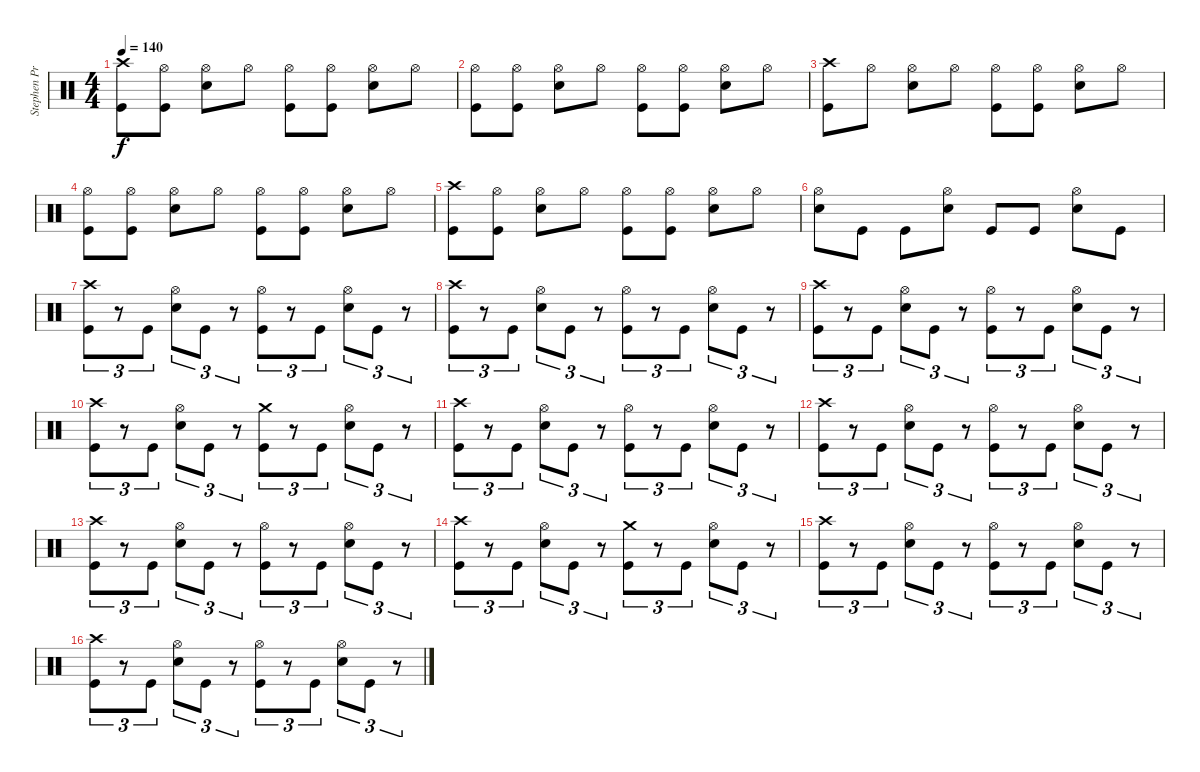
\track ("Stephen Priestly-Drums" "Stephen Pr") {instrument percussion}
\staff {score}
\articulation defaults
\ts (4 4)
\tempo 140
\clef neutral
\ks c
("Crash high (hit)" "Kick (hit)").8{dy f} ("Hi-Hat (open)" "Kick (hit)").8 ("Hi-Hat (open)" "Snare (hit) 2").8 "Hi-Hat (open)".8 ("Hi-Hat (open)" "Kick (hit)").8 ("Hi-Hat (open)" "Kick (hit)").8 ("Hi-Hat (open)" "Snare (hit) 2").8 "Hi-Hat (open)".8 |
("Hi-Hat (open)" "Kick (hit)").8 ("Hi-Hat (open)" "Kick (hit)").8 ("Hi-Hat (open)" "Snare (hit) 2").8 "Hi-Hat (open)".8 ("Hi-Hat (open)" "Kick (hit)").8 ("Hi-Hat (open)" "Kick (hit)").8 ("Hi-Hat (open)" "Snare (hit) 2").8 "Hi-Hat (open)".8 |
("Crash high (hit)" "Kick (hit)").8 "Hi-Hat (open)".8 ("Hi-Hat (open)" "Snare (hit) 2").8 "Hi-Hat (open)".8 ("Hi-Hat (open)" "Kick (hit)").8 ("Hi-Hat (open)" "Kick (hit)").8 ("Hi-Hat (open)" "Snare (hit) 2").8 "Hi-Hat (open)".8 |
("Hi-Hat (open)" "Kick (hit)").8 ("Hi-Hat (open)" "Kick (hit)").8 ("Hi-Hat (open)" "Snare (hit) 2").8 "Hi-Hat (open)".8 ("Hi-Hat (open)" "Kick (hit)").8 ("Hi-Hat (open)" "Kick (hit)").8 ("Hi-Hat (open)" "Snare (hit) 2").8 "Hi-Hat (open)".8 |
("Crash high (hit)" "Kick (hit)").8 ("Hi-Hat (open)" "Kick (hit)").8 ("Hi-Hat (open)" "Snare (hit) 2").8 "Hi-Hat (open)".8 ("Hi-Hat (open)" "Kick (hit)").8 ("Hi-Hat (open)" "Kick (hit)").8 ("Hi-Hat (open)" "Snare (hit) 2").8 "Hi-Hat (open)".8 |
("Hi-Hat (open)" "Snare (hit) 2").8 "Kick (hit)".8 "Kick (hit)".8 ("Hi-Hat (open)" "Snare (hit) 2").8 "Kick (hit)".8 "Kick (hit)".8 ("Hi-Hat (open)" "Snare (hit) 2").8 "Kick (hit)".8 |
("Crash high (hit)" "Kick (hit)").8{tu (3 2)} r.8{tu (3 2)} "Kick (hit)".8{tu (3 2)} ("Hi-Hat (open)" "Snare (hit) 2").8{tu (3 2)} "Kick (hit)".8{tu (3 2)} r.8{tu (3 2)} ("Hi-Hat (open)" "Kick (hit)").8{tu (3 2)} r.8{tu (3 2)} "Kick (hit)".8{tu (3 2)} ("Hi-Hat (open)" "Snare (hit) 2").8{tu (3 2)} "Kick (hit)".8{tu (3 2)} r.8{tu (3 2)} |
("Crash high (hit)" "Kick (hit)").8{tu (3 2)} r.8{tu (3 2)} "Kick (hit)".8{tu (3 2)} ("Hi-Hat (open)" "Snare (hit) 2").8{tu (3 2)} "Kick (hit)".8{tu (3 2)} r.8{tu (3 2)} ("Hi-Hat (open)" "Kick (hit)").8{tu (3 2)} r.8{tu (3 2)} "Kick (hit)".8{tu (3 2)} ("Hi-Hat (open)" "Snare (hit) 2").8{tu (3 2)} "Kick (hit)".8{tu (3 2)} r.8{tu (3 2)} |
("Crash high (hit)" "Kick (hit)").8{tu (3 2)} r.8{tu (3 2)} "Kick (hit)".8{tu (3 2)} ("Hi-Hat (open)" "Snare (hit) 2").8{tu (3 2)} "Kick (hit)".8{tu (3 2)} r.8{tu (3 2)} ("Hi-Hat (open)" "Kick (hit)").8{tu (3 2)} r.8{tu (3 2)} "Kick (hit)".8{tu (3 2)} ("Hi-Hat (open)" "Snare (hit) 2").8{tu (3 2)} "Kick (hit)".8{tu (3 2)} r.8{tu (3 2)} |
("Crash high (hit)" "Kick (hit)").8{tu (3 2)} r.8{tu (3 2)} "Kick (hit)".8{tu (3 2)} ("Hi-Hat (open)" "Snare (hit) 2").8{tu (3 2)} "Kick (hit)".8{tu (3 2)} r.8{tu (3 2)} ("Crash medium (hit)" "Kick (hit)").8{tu (3 2)} r.8{tu (3 2)} "Kick (hit)".8{tu (3 2)} ("Hi-Hat (open)" "Snare (hit) 2").8{tu (3 2)} "Kick (hit)".8{tu (3 2)} r.8{tu (3 2)} |
("Crash high (hit)" "Kick (hit)").8{tu (3 2)} r.8{tu (3 2)} "Kick (hit)".8{tu (3 2)} ("Hi-Hat (open)" "Snare (hit) 2").8{tu (3 2)} "Kick (hit)".8{tu (3 2)} r.8{tu (3 2)} ("Hi-Hat (open)" "Kick (hit)").8{tu (3 2)} r.8{tu (3 2)} "Kick (hit)".8{tu (3 2)} ("Hi-Hat (open)" "Snare (hit) 2").8{tu (3 2)} "Kick (hit)".8{tu (3 2)} r.8{tu (3 2)} |
("Crash high (hit)" "Kick (hit)").8{tu (3 2)} r.8{tu (3 2)} "Kick (hit)".8{tu (3 2)} ("Hi-Hat (open)" "Snare (hit) 2").8{tu (3 2)} "Kick (hit)".8{tu (3 2)} r.8{tu (3 2)} ("Hi-Hat (open)" "Kick (hit)").8{tu (3 2)} r.8{tu (3 2)} "Kick (hit)".8{tu (3 2)} ("Hi-Hat (open)" "Snare (hit) 2").8{tu (3 2)} "Kick (hit)".8{tu (3 2)} r.8{tu (3 2)} |
("Crash high (hit)" "Kick (hit)").8{tu (3 2)} r.8{tu (3 2)} "Kick (hit)".8{tu (3 2)} ("Hi-Hat (open)" "Snare (hit) 2").8{tu (3 2)} "Kick (hit)".8{tu (3 2)} r.8{tu (3 2)} ("Hi-Hat (open)" "Kick (hit)").8{tu (3 2)} r.8{tu (3 2)} "Kick (hit)".8{tu (3 2)} ("Hi-Hat (open)" "Snare (hit) 2").8{tu (3 2)} "Kick (hit)".8{tu (3 2)} r.8{tu (3 2)} |
("Crash high (hit)" "Kick (hit)").8{tu (3 2)} r.8{tu (3 2)} "Kick (hit)".8{tu (3 2)} ("Hi-Hat (open)" "Snare (hit) 2").8{tu (3 2)} "Kick (hit)".8{tu (3 2)} r.8{tu (3 2)} ("Crash medium (hit)" "Kick (hit)").8{tu (3 2)} r.8{tu (3 2)} "Kick (hit)".8{tu (3 2)} ("Hi-Hat (open)" "Snare (hit) 2").8{tu (3 2)} "Kick (hit)".8{tu (3 2)} r.8{tu (3 2)} |
("Crash high (hit)" "Kick (hit)").8{tu (3 2)} r.8{tu (3 2)} "Kick (hit)".8{tu (3 2)} ("Hi-Hat (open)" "Snare (hit) 2").8{tu (3 2)} "Kick (hit)".8{tu (3 2)} r.8{tu (3 2)} ("Hi-Hat (open)" "Kick (hit)").8{tu (3 2)} r.8{tu (3 2)} "Kick (hit)".8{tu (3 2)} ("Hi-Hat (open)" "Snare (hit) 2").8{tu (3 2)} "Kick (hit)".8{tu (3 2)} r.8{tu (3 2)} |
("Crash high (hit)" "Kick (hit)").8{tu (3 2)} r.8{tu (3 2)} "Kick (hit)".8{tu (3 2)} ("Hi-Hat (open)" "Snare (hit) 2").8{tu (3 2)} "Kick (hit)".8{tu (3 2)} r.8{tu (3 2)} ("Hi-Hat (open)" "Kick (hit)").8{tu (3 2)} r.8{tu (3 2)} "Kick (hit)".8{tu (3 2)} ("Hi-Hat (open)" "Snare (hit) 2").8{tu (3 2)} "Kick (hit)".8{tu (3 2)} r.8{tu (3 2)}
